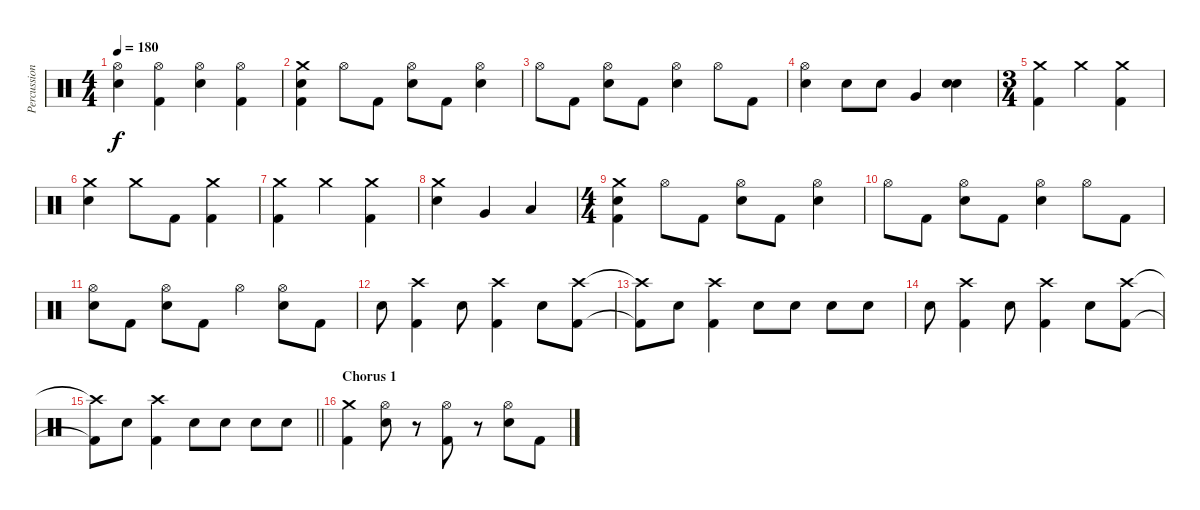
\track ("Percussion" "Percussion") {instrument percussion}
\staff {score}
\articulation defaults
\ts (4 4)
\tempo 180
\clef neutral
\ks c
("Hi-Hat (open)" "Snare (hit) 2").4{dy f} ("Hi-Hat (open)" "Kick (hit) 2").4 ("Hi-Hat (open)" "Snare (hit) 2").4 ("Hi-Hat (open)" "Kick (hit) 2").4 |
("Crash medium (hit)" "Snare (hit) 2" "Kick (hit) 2").4 "Hi-Hat (open)".8 "Kick (hit) 2".8 ("Hi-Hat (open)" "Snare (hit) 2").8 "Kick (hit) 2".8 ("Hi-Hat (open)" "Snare (hit) 2").4 |
"Hi-Hat (open)".8 "Kick (hit) 2".8 ("Hi-Hat (open)" "Snare (hit) 2").8 "Kick (hit) 2".8 ("Hi-Hat (open)" "Snare (hit) 2").4 "Hi-Hat (open)".8 "Kick (hit) 2".8 |
("Hi-Hat (open)" "Snare (hit) 2").4 "Snare (hit) 2".8 "Snare (hit) 2".8 "Very Low Tom (hit)".4 ("Snare (hit) 2" "Snare (hit) 2").4 |
\ts (3 4)
("Crash medium (hit)" "Kick (hit) 2").4 "Crash medium (hit)".4 ("Crash medium (hit)" "Kick (hit) 2").4 |
("Crash medium (hit)" "Snare (hit) 2").4 "Crash medium (hit)".8 "Kick (hit) 2".8 ("Crash medium (hit)" "Kick (hit) 2").4 |
("Crash medium (hit)" "Kick (hit) 2").4 "Crash medium (hit)".4 ("Crash medium (hit)" "Kick (hit) 2").4 |
("Crash medium (hit)" "Snare (hit) 2").4 "Very Low Tom (hit)".4 "Low Floor Tom (hit)".4 |
\ts (4 4)
("Crash medium (hit)" "Snare (hit) 2" "Kick (hit) 2").4 "Hi-Hat (open)".8 "Kick (hit) 2".8 ("Hi-Hat (open)" "Snare (hit) 2").8 "Kick (hit) 2".8 ("Hi-Hat (open)" "Snare (hit) 2").4 |
"Hi-Hat (open)".8 "Kick (hit) 2".8 ("Hi-Hat (open)" "Snare (hit) 2").8 "Kick (hit) 2".8 ("Hi-Hat (open)" "Snare (hit) 2").4 "Hi-Hat (open)".8 "Kick (hit) 2".8 |
("Hi-Hat (open)" "Snare (hit) 2").8 "Kick (hit) 2".8 ("Hi-Hat (open)" "Snare (hit) 2").8 "Kick (hit) 2".8 "Hi-Hat (open)".4 ("Hi-Hat (open)" "Snare (hit) 2").8 "Kick (hit) 2".8 |
"Snare (hit) 2".8 ("Crash high (hit)" "Kick (hit) 2").4 "Snare (hit) 2".8 ("Crash high (hit)" "Kick (hit) 2").4 "Snare (hit) 2".8 ("Crash high (hit)" "Kick (hit) 2").8 |
("Crash high (hit)"{t} "Kick (hit) 2"{t}).8 "Snare (hit) 2".8 ("Crash high (hit)" "Kick (hit) 2").4 "Snare (hit) 2".8 "Snare (hit) 2".8 "Snare (hit) 2".8 "Snare (hit) 2".8 |
"Snare (hit) 2".8 ("Crash high (hit)" "Kick (hit) 2").4 "Snare (hit) 2".8 ("Crash high (hit)" "Kick (hit) 2").4 "Snare (hit) 2".8 ("Crash high (hit)" "Kick (hit) 2").8 |
\barLineRight lightlight
("Crash high (hit)"{t} "Kick (hit) 2"{t}).8 "Snare (hit) 2".8 ("Crash high (hit)" "Kick (hit) 2").4 "Snare (hit) 2".8 "Snare (hit) 2".8 "Snare (hit) 2".8 "Snare (hit) 2".8 |
\section ("" "Chorus 1")
("Crash medium (hit)" "Kick (hit) 2").4 ("Hi-Hat (open)" "Snare (hit) 2").8 r.8 ("Hi-Hat (open)" "Kick (hit) 2").8 r.8 ("Hi-Hat (open)" "Snare (hit) 2").8 "Kick (hit) 2".8
